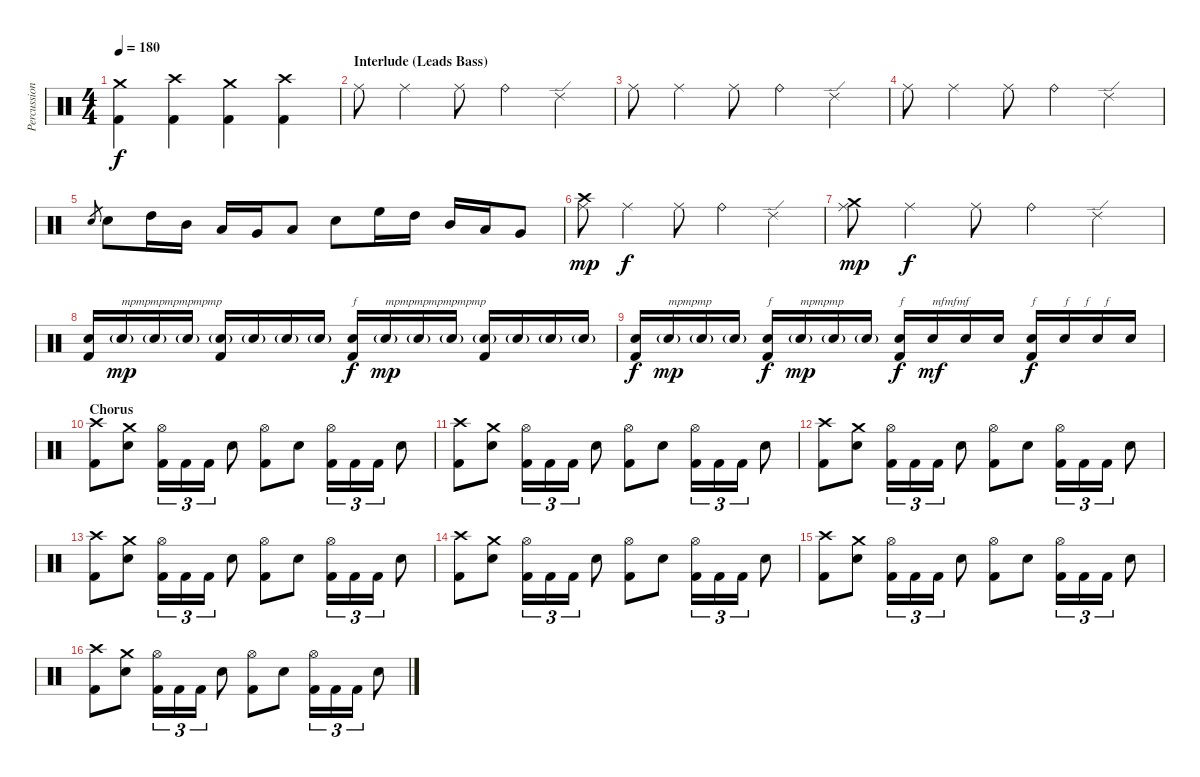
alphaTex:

\track ("Percussion" "Percussion") {instrument percussion}
\staff {score}
\articulation defaults
\ts (4 4)
\tempo 180
\clef neutral
\ks c
("Crash medium (hit)" "Kick (hit) 2").4{dy f} ("Crash high (hit)" "Kick (hit) 2").4 ("Crash medium (hit)" "Kick (hit) 2").4 ("Crash high (hit)" "Kick (hit) 2").4 |
\section ("" "Interlude (Leads Bass)")
"Ride (middle)".8 "Ride (middle)".4 "Ride (middle)".8 "Ride (bell)".4 "Ride (edge) 2".4 |
"Ride (middle)".8 "Ride (middle)".4 "Ride (middle)".8 "Ride (bell)".4 "Ride (edge) 2".4 |
"Ride (middle)".8 "Ride (middle)".4 "Ride (middle)".8 "Ride (bell)".4 "Ride (edge) 2".4 |
"Snare (hit) 2".8{gr} "Snare (hit) 2".8 "High Tom (hit)".16 "Mid Tom (hit)".16 "Low Tom (hit)".16 "Very Low Tom (hit)".16 "Low Floor Tom (hit)".8 "Snare (hit) 2".8 "High Floor Tom (hit)".16 "High Tom (hit)".16 "Mid Tom (hit)".16 "Low Tom (hit)".16 "Very Low Tom (hit)".8 |
("Ride (middle)" "Crash high (hit)").8{dy mp} "Ride (middle)".4{dy f} "Ride (middle)".8 "Ride (bell)".4 "Ride (edge) 2".4 |
("Ride (middle)" "Crash medium (hit)").8{dy mp} "Ride (middle)".4{dy f} "Ride (middle)".8 "Ride (bell)".4 "Ride (edge) 2".4 |
("Snare (hit) 2" "Kick (hit) 2").16 "Snare (hit) 2"{g}.16{txt "mpmpmpmpmpmpmp" dy mp} "Snare (hit) 2"{g}.16 "Snare (hit) 2"{g}.16 ("Snare (hit) 2"{g} "Kick (hit) 2").16 "Snare (hit) 2"{g}.16 "Snare (hit) 2"{g}.16 "Snare (hit) 2"{g}.16 ("Snare (hit) 2" "Kick (hit) 2").16{txt "f" dy f} "Snare (hit) 2"{g}.16{txt "mpmpmpmpmpmpmp" dy mp} "Snare (hit) 2"{g}.16 "Snare (hit) 2"{g}.16 ("Snare (hit) 2"{g} "Kick (hit) 2").16 "Snare (hit) 2"{g}.16 "Snare (hit) 2"{g}.16 "Snare (hit) 2"{g}.16 |
("Snare (hit) 2" "Kick (hit) 2").16{dy f} "Snare (hit) 2"{g}.16{txt "mpmpmp" dy mp} "Snare (hit) 2"{g}.16 "Snare (hit) 2"{g}.16 ("Snare (hit) 2" "Kick (hit) 2").16{txt "f" dy f} "Snare (hit) 2"{g}.16{txt "mpmpmp" dy mp} "Snare (hit) 2"{g}.16 "Snare (hit) 2"{g}.16 ("Snare (hit) 2" "Kick (hit) 2").16{txt "f" dy f} "Snare (hit) 2".16{txt "mfmfmf" dy mf} "Snare (hit) 2".16 "Snare (hit) 2".16 ("Snare (hit) 2" "Kick (hit) 2").16{txt "f" dy f} "Snare (hit) 2".16{txt "f     f     f   "} "Snare (hit) 2".16 "Snare (hit) 2".16 |
\section ("" "Chorus")
("Crash high (hit)" "Kick (hit) 2").8 ("Crash medium (hit)" "Snare (hit) 2").8 ("Hi-Hat (open)" "Kick (hit) 2").16{tu (3 2)} "Kick (hit) 2".16{tu (3 2)} "Kick (hit) 2".16{tu (3 2)} "Snare (hit) 2".8 ("Hi-Hat (open)" "Kick (hit) 2").8 "Snare (hit) 2".8 ("Hi-Hat (open)" "Kick (hit) 2").16{tu (3 2)} "Kick (hit) 2".16{tu (3 2)} "Kick (hit) 2".16{tu (3 2)} "Snare (hit) 2".8 |
("Crash high (hit)" "Kick (hit) 2").8 ("Crash medium (hit)" "Snare (hit) 2").8 ("Hi-Hat (open)" "Kick (hit) 2").16{tu (3 2)} "Kick (hit) 2".16{tu (3 2)} "Kick (hit) 2".16{tu (3 2)} "Snare (hit) 2".8 ("Hi-Hat (open)" "Kick (hit) 2").8 "Snare (hit) 2".8 ("Hi-Hat (open)" "Kick (hit) 2").16{tu (3 2)} "Kick (hit) 2".16{tu (3 2)} "Kick (hit) 2".16{tu (3 2)} "Snare (hit) 2".8 |
("Crash high (hit)" "Kick (hit) 2").8 ("Crash medium (hit)" "Snare (hit) 2").8 ("Hi-Hat (open)" "Kick (hit) 2").16{tu (3 2)} "Kick (hit) 2".16{tu (3 2)} "Kick (hit) 2".16{tu (3 2)} "Snare (hit) 2".8 ("Hi-Hat (open)" "Kick (hit) 2").8 "Snare (hit) 2".8 ("Hi-Hat (open)" "Kick (hit) 2").16{tu (3 2)} "Kick (hit) 2".16{tu (3 2)} "Kick (hit) 2".16{tu (3 2)} "Snare (hit) 2".8 |
("Crash high (hit)" "Kick (hit) 2").8 ("Crash medium (hit)" "Snare (hit) 2").8 ("Hi-Hat (open)" "Kick (hit) 2").16{tu (3 2)} "Kick (hit) 2".16{tu (3 2)} "Kick (hit) 2".16{tu (3 2)} "Snare (hit) 2".8 ("Hi-Hat (open)" "Kick (hit) 2").8 "Snare (hit) 2".8 ("Hi-Hat (open)" "Kick (hit) 2").16{tu (3 2)} "Kick (hit) 2".16{tu (3 2)} "Kick (hit) 2".16{tu (3 2)} "Snare (hit) 2".8 |
("Crash high (hit)" "Kick (hit) 2").8 ("Crash medium (hit)" "Snare (hit) 2").8 ("Hi-Hat (open)" "Kick (hit) 2").16{tu (3 2)} "Kick (hit) 2".16{tu (3 2)} "Kick (hit) 2".16{tu (3 2)} "Snare (hit) 2".8 ("Hi-Hat (open)" "Kick (hit) 2").8 "Snare (hit) 2".8 ("Hi-Hat (open)" "Kick (hit) 2").16{tu (3 2)} "Kick (hit) 2".16{tu (3 2)} "Kick (hit) 2".16{tu (3 2)} "Snare (hit) 2".8 |
("Crash high (hit)" "Kick (hit) 2").8 ("Crash medium (hit)" "Snare (hit) 2").8 ("Hi-Hat (open)" "Kick (hit) 2").16{tu (3 2)} "Kick (hit) 2".16{tu (3 2)} "Kick (hit) 2".16{tu (3 2)} "Snare (hit) 2".8 ("Hi-Hat (open)" "Kick (hit) 2").8 "Snare (hit) 2".8 ("Hi-Hat (open)" "Kick (hit) 2").16{tu (3 2)} "Kick (hit) 2".16{tu (3 2)} "Kick (hit) 2".16{tu (3 2)} "Snare (hit) 2".8 |
("Crash high (hit)" "Kick (hit) 2").8 ("Crash medium (hit)" "Snare (hit) 2").8 ("Hi-Hat (open)" "Kick (hit) 2").16{tu (3 2)} "Kick (hit) 2".16{tu (3 2)} "Kick (hit) 2".16{tu (3 2)} "Snare (hit) 2".8 ("Hi-Hat (open)" "Kick (hit) 2").8 "Snare (hit) 2".8 ("Hi-Hat (open)" "Kick (hit) 2").16{tu (3 2)} "Kick (hit) 2".16{tu (3 2)} "Kick (hit) 2".16{tu (3 2)} "Snare (hit) 2".8
